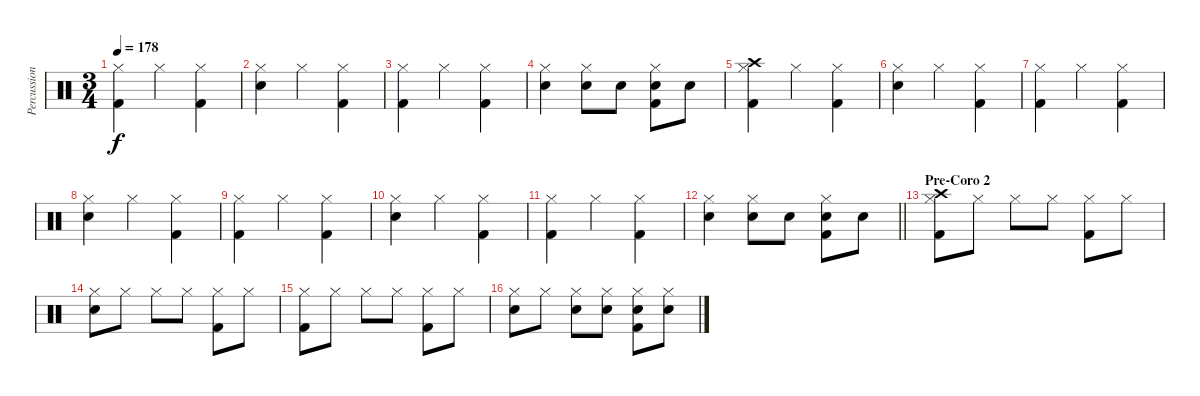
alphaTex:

\track ("Percussion" "Percussion") {instrument percussion}
\staff {score}
\articulation defaults
\ts (3 4)
\tempo 178
\clef neutral
\ks c
("Hi-Hat (closed)" "Kick (hit) 2").4{dy f} "Hi-Hat (closed)".4 ("Hi-Hat (closed)" "Kick (hit) 2").4 |
("Hi-Hat (closed)" "Snare (hit) 2").4 "Hi-Hat (closed)".4 ("Hi-Hat (closed)" "Kick (hit) 2").4 |
("Hi-Hat (closed)" "Kick (hit) 2").4 "Hi-Hat (closed)".4 ("Hi-Hat (closed)" "Kick (hit) 2").4 |
("Hi-Hat (closed)" "Snare (hit) 2").4 ("Hi-Hat (closed)" "Snare (hit) 2").8 "Snare (hit) 2".8 ("Hi-Hat (closed)" "Snare (hit) 2" "Kick (hit) 2").8 "Snare (hit) 2".8 |
("Hi-Hat (closed)" "Crash high (hit)" "Kick (hit) 2").4 "Hi-Hat (closed)".4 ("Hi-Hat (closed)" "Kick (hit) 2").4 |
("Hi-Hat (closed)" "Snare (hit) 2").4 "Hi-Hat (closed)".4 ("Hi-Hat (closed)" "Kick (hit) 2").4 |
("Hi-Hat (closed)" "Kick (hit) 2").4 "Hi-Hat (closed)".4 ("Hi-Hat (closed)" "Kick (hit) 2").4 |
("Hi-Hat (closed)" "Snare (hit) 2").4 "Hi-Hat (closed)".4 ("Hi-Hat (closed)" "Kick (hit) 2").4 |
("Hi-Hat (closed)" "Kick (hit) 2").4 "Hi-Hat (closed)".4 ("Hi-Hat (closed)" "Kick (hit) 2").4 |
("Hi-Hat (closed)" "Snare (hit) 2").4 "Hi-Hat (closed)".4 ("Hi-Hat (closed)" "Kick (hit) 2").4 |
("Hi-Hat (closed)" "Kick (hit) 2").4 "Hi-Hat (closed)".4 ("Hi-Hat (closed)" "Kick (hit) 2").4 |
\barLineRight lightlight
("Hi-Hat (closed)" "Snare (hit) 2").4 ("Hi-Hat (closed)" "Snare (hit) 2").8 "Snare (hit) 2".8 ("Hi-Hat (closed)" "Snare (hit) 2" "Kick (hit) 2").8 "Snare (hit) 2".8 |
\section ("" "Pre-Coro 2")
("Hi-Hat (closed)" "Crash high (hit)" "Kick (hit) 2").8 "Hi-Hat (closed)".8 "Hi-Hat (closed)".8 "Hi-Hat (closed)".8 ("Hi-Hat (closed)" "Kick (hit) 2").8 "Hi-Hat (closed)".8 |
("Hi-Hat (closed)" "Snare (hit) 2").8 "Hi-Hat (closed)".8 "Hi-Hat (closed)".8 "Hi-Hat (closed)".8 ("Hi-Hat (closed)" "Kick (hit) 2").8 "Hi-Hat (closed)".8 |
("Hi-Hat (closed)" "Kick (hit) 2").8 "Hi-Hat (closed)".8 "Hi-Hat (closed)".8 "Hi-Hat (closed)".8 ("Hi-Hat (closed)" "Kick (hit) 2").8 "Hi-Hat (closed)".8 |
("Hi-Hat (closed)" "Snare (hit) 2").8 "Hi-Hat (closed)".8 ("Hi-Hat (closed)" "Snare (hit) 2").8 ("Hi-Hat (closed)" "Snare (hit) 2").8 ("Hi-Hat (closed)" "Snare (hit) 2" "Kick (hit) 2").8 ("Hi-Hat (closed)" "Snare (hit) 2").8
